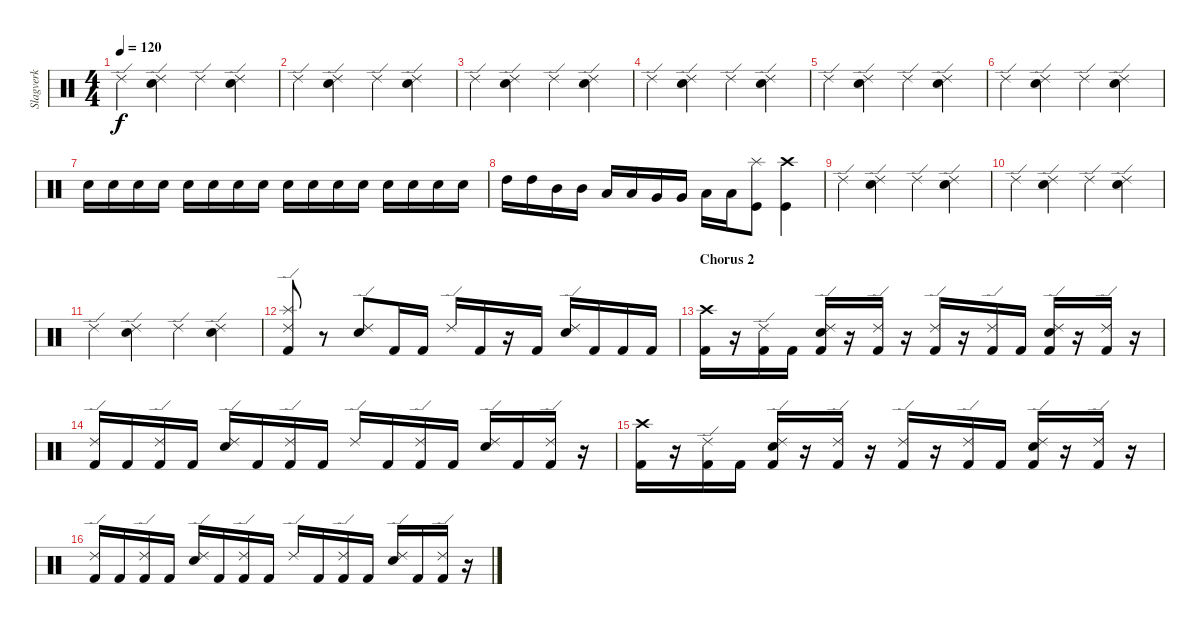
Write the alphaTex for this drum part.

\track ("Slagverk" "Slagverk") {instrument percussion}
\staff {score}
\articulation defaults
\ts (4 4)
\tempo 120
\clef neutral
\ks c "Ride (edge) 2".4{dy f}
("Ride (edge) 2" "Electric Snare (hit)").4 "Ride (edge) 2".4 ("Ride (edge) 2" "Electric Snare (hit)").4 |
"Ride (edge) 2".4 ("Ride (edge) 2" "Electric Snare (hit)").4 "Ride (edge) 2".4 ("Ride (edge) 2" "Electric Snare (hit)").4 |
"Ride (edge) 2".4 ("Ride (edge) 2" "Electric Snare (hit)").4 "Ride (edge) 2".4 ("Ride (edge) 2" "Electric Snare (hit)").4 |
"Ride (edge) 2".4 ("Ride (edge) 2" "Electric Snare (hit)").4 "Ride (edge) 2".4 ("Ride (edge) 2" "Electric Snare (hit)").4 |
"Ride (edge) 2".4 ("Ride (edge) 2" "Electric Snare (hit)").4 "Ride (edge) 2".4 ("Ride (edge) 2" "Electric Snare (hit)").4 |
"Ride (edge) 2".4 ("Ride (edge) 2" "Electric Snare (hit)").4 "Ride (edge) 2".4 ("Ride (edge) 2" "Electric Snare (hit)").4 |
"Electric Snare (hit)".16 "Electric Snare (hit)".16 "Electric Snare (hit)".16 "Electric Snare (hit)".16 "Electric Snare (hit)".16 "Electric Snare (hit)".16 "Electric Snare (hit)".16 "Electric Snare (hit)".16 "Electric Snare (hit)".16 "Electric Snare (hit)".16 "Electric Snare (hit)".16 "Electric Snare (hit)".16 "Electric Snare (hit)".16 "Electric Snare (hit)".16 "Electric Snare (hit)".16 "Electric Snare (hit)".16 |
"High Tom (hit)".16 "High Tom (hit)".16 "Mid Tom (hit)".16 "Mid Tom (hit)".16 "Low Tom (hit)".16 "Low Tom (hit)".16 "Very Low Tom (hit)".16 "Very Low Tom (hit)".16 "Low Floor Tom (hit)".16 "Low Floor Tom (hit)".16 ("Kick (hit)" "Splash (hit)").8 ("Kick (hit)" "Crash high (hit)").4 |
"Ride (edge) 2".4 ("Ride (edge) 2" "Electric Snare (hit)").4 "Ride (edge) 2".4 ("Ride (edge) 2" "Electric Snare (hit)").4 |
"Ride (edge) 2".4 ("Ride (edge) 2" "Electric Snare (hit)").4 "Ride (edge) 2".4 ("Ride (edge) 2" "Electric Snare (hit)").4 |
"Ride (edge) 2".4 ("Ride (edge) 2" "Electric Snare (hit)").4 "Ride (edge) 2".4 ("Ride (edge) 2" "Electric Snare (hit)").4 |
("Ride (edge) 2" "Splash (hit)" "Kick (hit) 2").8 r.8 ("Ride (edge) 2" "Electric Snare (hit)").8 "Kick (hit) 2".16 "Kick (hit) 2".16 "Ride (edge) 2".16 "Kick (hit) 2".16 r.16 "Kick (hit) 2".16 ("Ride (edge) 2" "Electric Snare (hit)").16 "Kick (hit) 2".16 "Kick (hit) 2".16 "Kick (hit) 2".16 |
\section ("" "Chorus 2")
("Kick (hit) 2" "Crash high (hit)").16 r.16 ("Kick (hit) 2" "Ride (edge) 2").16 "Kick (hit) 2".16 ("Kick (hit) 2" "Electric Snare (hit)" "Ride (edge) 2").16 r.16 ("Kick (hit) 2" "Ride (edge) 2").16 r.16 ("Kick (hit) 2" "Ride (edge) 2").16 r.16 ("Kick (hit) 2" "Ride (edge) 2").16 "Kick (hit) 2".16 ("Kick (hit) 2" "Electric Snare (hit)" "Ride (edge) 2").16 r.16 ("Kick (hit) 2" "Ride (edge) 2").16 r.16 |
("Kick (hit) 2" "Ride (edge) 2").16 "Kick (hit) 2".16 ("Kick (hit) 2" "Ride (edge) 2").16 "Kick (hit) 2".16 ("Electric Snare (hit)" "Ride (edge) 2").16 "Kick (hit) 2".16 ("Kick (hit) 2" "Ride (edge) 2").16 "Kick (hit) 2".16 "Ride (edge) 2".16 "Kick (hit) 2".16 ("Kick (hit) 2" "Ride (edge) 2").16 "Kick (hit) 2".16 ("Electric Snare (hit)" "Ride (edge) 2").16 "Kick (hit) 2".16 ("Kick (hit) 2" "Ride (edge) 2").16 r.16 |
("Kick (hit) 2" "Crash high (hit)").16 r.16 ("Kick (hit) 2" "Ride (edge) 2").16 "Kick (hit) 2".16 ("Kick (hit) 2" "Electric Snare (hit)" "Ride (edge) 2").16 r.16 ("Kick (hit) 2" "Ride (edge) 2").16 r.16 ("Kick (hit) 2" "Ride (edge) 2").16 r.16 ("Kick (hit) 2" "Ride (edge) 2").16 "Kick (hit) 2".16 ("Kick (hit) 2" "Electric Snare (hit)" "Ride (edge) 2").16 r.16 ("Kick (hit) 2" "Ride (edge) 2").16 r.16 |
("Kick (hit) 2" "Ride (edge) 2").16 "Kick (hit) 2".16 ("Kick (hit) 2" "Ride (edge) 2").16 "Kick (hit) 2".16 ("Electric Snare (hit)" "Ride (edge) 2").16 "Kick (hit) 2".16 ("Kick (hit) 2" "Ride (edge) 2").16 "Kick (hit) 2".16 "Ride (edge) 2".16 "Kick (hit) 2".16 ("Kick (hit) 2" "Ride (edge) 2").16 "Kick (hit) 2".16 ("Electric Snare (hit)" "Ride (edge) 2").16 "Kick (hit) 2".16 ("Kick (hit) 2" "Ride (edge) 2").16 r.16
